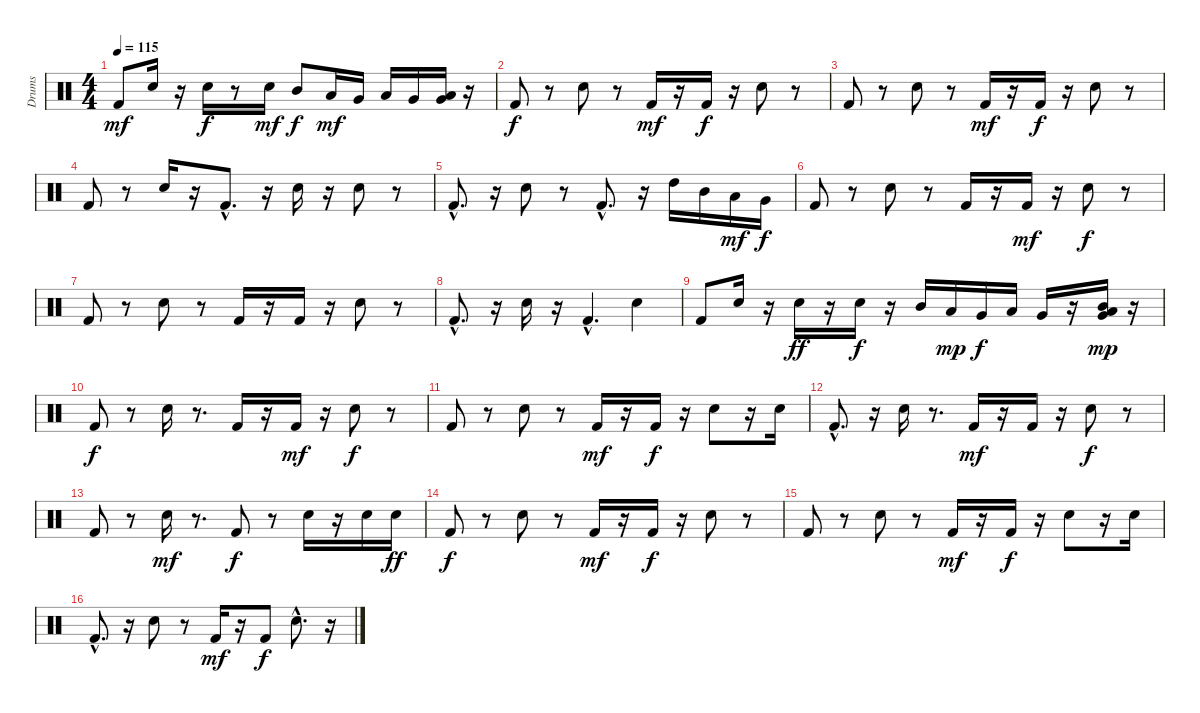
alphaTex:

\track ("Drums" "Drums") {instrument percussion}
\staff {score}
\articulation defaults
\ts (4 4)
\tempo 115
\clef neutral
\ks c "Kick (hit) 2".8{dy mf} "Electric Snare (hit)".16
r.16 "Electric Snare (hit)".16{dy f} r.8 "Electric Snare (hit)".16{dy mf} "Mid Tom (hit)".8{dy f} "Low Tom (hit)".16{dy mf} "Very Low Tom (hit)".16 "Low Tom (hit)".16 "Very Low Tom (hit)".16 ("Low Floor Tom (hit)" "Very Low Tom (hit)").16 r.16 |
"Kick (hit) 2".8{dy f} r.8 "Electric Snare (hit)".8 r.8 "Kick (hit) 2".16{dy mf} r.16 "Kick (hit) 2".16{dy f} r.16 "Electric Snare (hit)".8 r.8 |
"Kick (hit) 2".8 r.8 "Electric Snare (hit)".8 r.8 "Kick (hit) 2".16{dy mf} r.16 "Kick (hit) 2".16{dy f} r.16 "Electric Snare (hit)".8 r.8 |
"Kick (hit) 2".8 r.8 "Electric Snare (hit)".16 r.16 "Kick (hit) 2"{hac}.8{d} r.16 "Electric Snare (hit)".16 r.16 "Electric Snare (hit)".8 r.8 |
"Kick (hit) 2"{hac}.8{d} r.16 "Electric Snare (hit)".8 r.8 "Kick (hit) 2"{hac}.8{d} r.16 "High Tom (hit)".16 "Mid Tom (hit)".16 "Low Tom (hit)".16{dy mf} "Very Low Tom (hit)".16{dy f} |
"Kick (hit) 2".8 r.8 "Electric Snare (hit)".8 r.8 "Kick (hit) 2".16 r.16 "Kick (hit) 2".16{dy mf} r.16 "Electric Snare (hit)".8{dy f} r.8 |
"Kick (hit) 2".8 r.8 "Electric Snare (hit)".8 r.8 "Kick (hit) 2".16 r.16 "Kick (hit) 2".16 r.16 "Electric Snare (hit)".8 r.8 |
"Kick (hit) 2"{hac}.8{d} r.16 "Electric Snare (hit)".16 r.16 "Kick (hit) 2"{hac}.4{d} "Electric Snare (hit)".4 |
"Kick (hit) 2".8 "Electric Snare (hit)".16 r.16 "Electric Snare (hit)".16{dy ff} r.16 "Electric Snare (hit)".16{dy f} r.16 "Mid Tom (hit)".16 "Low Tom (hit)".16{dy mp} "Very Low Tom (hit)".16{dy f} "Low Tom (hit)".16 "Very Low Tom (hit)".16 r.16 ("Low Tom (hit)" "Mid Tom (hit)" "Very Low Tom (hit)").16{dy mp} r.16 |
"Kick (hit) 2".8{dy f} r.8 "Electric Snare (hit)".16 r.8{d} "Kick (hit) 2".16 r.16 "Kick (hit) 2".16{dy mf} r.16 "Electric Snare (hit)".8{dy f} r.8 |
"Kick (hit) 2".8 r.8 "Electric Snare (hit)".8 r.8 "Kick (hit) 2".16{dy mf} r.16 "Kick (hit) 2".16{dy f} r.16 "Electric Snare (hit)".8 r.16 "Electric Snare (hit)".16 |
"Kick (hit) 2"{hac}.8{d} r.16 "Electric Snare (hit)".16 r.8{d} "Kick (hit) 2".16{dy mf} r.16 "Kick (hit) 2".16 r.16 "Electric Snare (hit)".8{dy f} r.8 |
"Kick (hit) 2".8 r.8 "Electric Snare (hit)".16{dy mf} r.8{d} "Kick (hit) 2".8{dy f} r.8 "Electric Snare (hit)".16 r.16 "Electric Snare (hit)".16 "Electric Snare (hit)".16{dy ff} |
"Kick (hit) 2".8{dy f} r.8 "Electric Snare (hit)".8 r.8 "Kick (hit) 2".16{dy mf} r.16 "Kick (hit) 2".16{dy f} r.16 "Electric Snare (hit)".8 r.8 |
"Kick (hit) 2".8 r.8 "Electric Snare (hit)".8 r.8 "Kick (hit) 2".16{dy mf} r.16 "Kick (hit) 2".16{dy f} r.16 "Electric Snare (hit)".8 r.16 "Electric Snare (hit)".16 |
"Kick (hit) 2"{hac}.8{d} r.16 "Electric Snare (hit)".8 r.8 "Kick (hit) 2".16{dy mf} r.16 "Kick (hit) 2".8{dy f} "Electric Snare (hit)"{hac}.8{d} r.16
